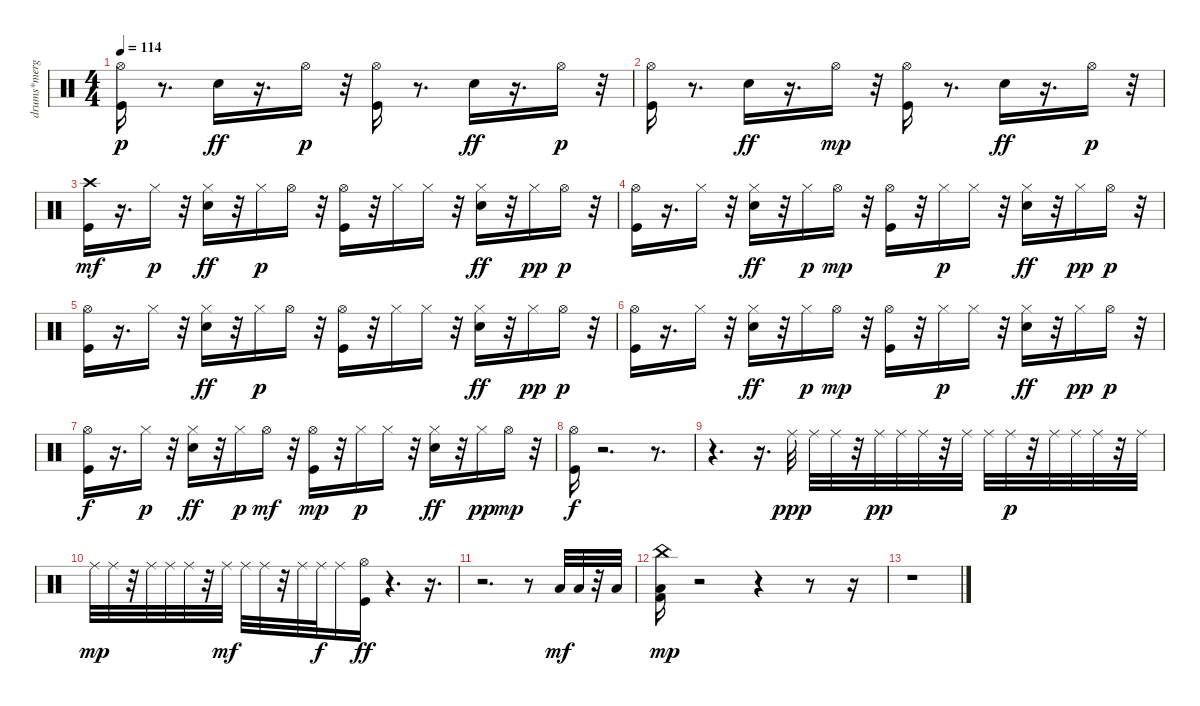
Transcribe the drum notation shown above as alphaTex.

\track ("drums*merged" "drums*merg") {instrument percussion}
\staff {score}
\articulation defaults
\ts (4 4)
\tempo 114
\clef neutral
\ks c
("Hi-Hat (open)" "Kick (hit)").16{dy p} r.8{d} "Snare (hit) 2".16{dy ff} r.16{d} "Hi-Hat (open)".16{dy p} r.32 ("Hi-Hat (open)" "Kick (hit)").16 r.8{d} "Snare (hit) 2".16{dy ff} r.16{d} "Hi-Hat (open)".16{dy p} r.32 |
("Hi-Hat (open)" "Kick (hit)").16 r.8{d} "Snare (hit) 2".16{dy ff} r.16{d} "Hi-Hat (open)".16{dy mp} r.32 ("Hi-Hat (open)" "Kick (hit)").16 r.8{d} "Snare (hit) 2".16{dy ff} r.16{d} "Hi-Hat (open)".16{dy p} r.32 |
("Kick (hit)" "Crash high (hit)").16{dy mf} r.16{d} "Hi-Hat (closed)".16{dy p} r.32 ("Hi-Hat (closed)" "Snare (hit) 2").16{dy ff} r.32 "Hi-Hat (closed)".16{dy p} "Hi-Hat (open)".16 r.32 ("Hi-Hat (open)" "Kick (hit)").16 r.32 "Hi-Hat (closed)".16 "Hi-Hat (closed)".16 r.32 ("Hi-Hat (closed)" "Snare (hit) 2").16{dy ff} r.32 "Hi-Hat (closed)".16{dy pp} "Hi-Hat (open)".16{dy p} r.32 |
("Kick (hit)" "Hi-Hat (open)").16 r.16{d} "Hi-Hat (closed)".16 r.32 ("Hi-Hat (closed)" "Snare (hit) 2").16{dy ff} r.32 "Hi-Hat (closed)".16{dy p} "Hi-Hat (open)".16{dy mp} r.32 ("Kick (hit)" "Hi-Hat (open)").16 r.32 "Hi-Hat (closed)".16{dy p} "Hi-Hat (closed)".16 r.32 ("Hi-Hat (closed)" "Snare (hit) 2").16{dy ff} r.32 "Hi-Hat (closed)".16{dy pp} "Hi-Hat (open)".16{dy p} r.32 |
("Hi-Hat (open)" "Kick (hit)").16 r.16{d} "Hi-Hat (closed)".16 r.32 ("Hi-Hat (closed)" "Snare (hit) 2").16{dy ff} r.32 "Hi-Hat (closed)".16{dy p} "Hi-Hat (open)".16 r.32 ("Hi-Hat (open)" "Kick (hit)").16 r.32 "Hi-Hat (closed)".16 "Hi-Hat (closed)".16 r.32 ("Hi-Hat (closed)" "Snare (hit) 2").16{dy ff} r.32 "Hi-Hat (closed)".16{dy pp} "Hi-Hat (open)".16{dy p} r.32 |
("Hi-Hat (open)" "Kick (hit)").16 r.16{d} "Hi-Hat (closed)".16 r.32 ("Hi-Hat (closed)" "Snare (hit) 2").16{dy ff} r.32 "Hi-Hat (closed)".16{dy p} "Hi-Hat (open)".16{dy mp} r.32 ("Hi-Hat (open)" "Kick (hit)").16 r.32 "Hi-Hat (closed)".16{dy p} "Hi-Hat (closed)".16 r.32 ("Hi-Hat (closed)" "Snare (hit) 2").16{dy ff} r.32 "Hi-Hat (closed)".16{dy pp} "Hi-Hat (open)".16{dy p} r.32 |
("Hi-Hat (open)" "Kick (hit)").16{dy f} r.16{d} "Hi-Hat (closed)".16{dy p} r.32 ("Hi-Hat (closed)" "Snare (hit) 2").16{dy ff} r.32 "Hi-Hat (closed)".16{dy p} "Hi-Hat (open)".16{dy mf} r.32 ("Hi-Hat (open)" "Kick (hit)").16{dy mp} r.32 "Hi-Hat (closed)".16{dy p} "Hi-Hat (closed)".16 r.32 ("Hi-Hat (closed)" "Snare (hit) 2").16{dy ff} r.32 "Hi-Hat (closed)".16{dy pp} "Hi-Hat (open)".16{dy mp} r.32 |
("Kick (hit)" "Hi-Hat (open)").16{dy f} r.2{d} r.8{d} |
r.4{d} r.16{d} "Ride (middle)".32{dy ppp} "Ride (middle)".32 "Ride (middle)".32 r.32 "Ride (middle)".32{dy pp} "Ride (middle)".32 "Ride (middle)".32 r.32 "Ride (middle)".32 "Ride (middle)".32 "Ride (middle)".32{dy p} r.32 "Ride (middle)".32 "Ride (middle)".32 "Ride (middle)".32 r.32 "Ride (middle)".32 |
"Ride (middle)".32{dy mp} "Ride (middle)".32 r.32 "Ride (middle)".32 "Ride (middle)".32 "Ride (middle)".32 r.32 "Ride (middle)".32{dy mf} "Ride (middle)".32 "Ride (middle)".32 r.32 "Ride (middle)".32 "Ride (middle)".32{dy f} "Ride (middle)".16 ("Hi-Hat (open)" "Kick (hit)").16{dy ff} r.4{d} r.16{d} |
r.2{d} r.8 "Low Floor Tom (hit)".32{dy mf} "Low Floor Tom (hit)".32 r.32 "Low Floor Tom (hit)".32 |
("Kick (hit) 2" "Low Floor Tom (hit)" "China (hit)").16{dy mp} r.2 r.4 r.8 r.16 |
r.1
